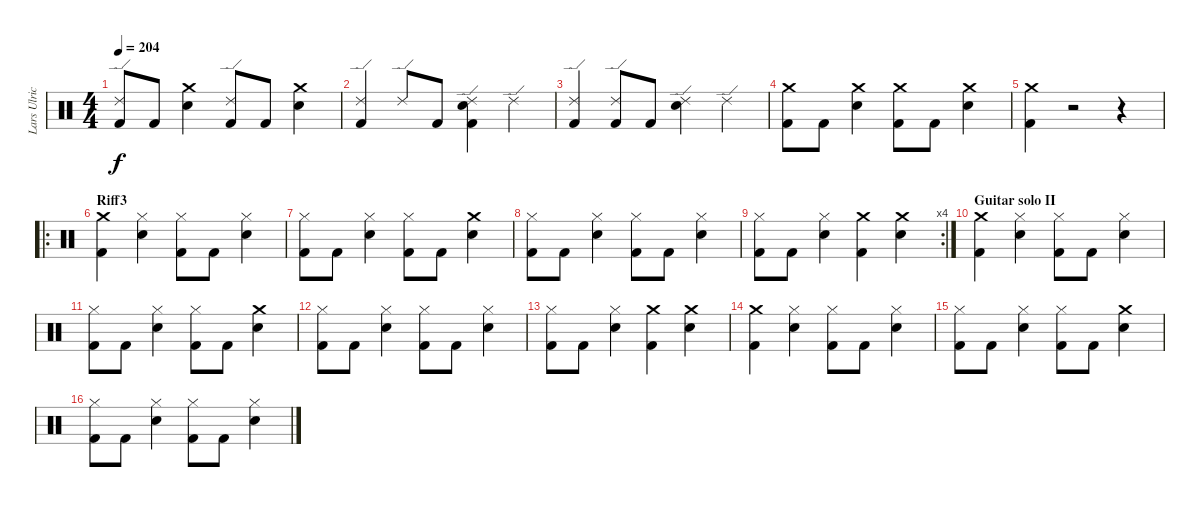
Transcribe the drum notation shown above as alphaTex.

\track ("Lars Ulrich (Drums)" "Lars Ulric") {instrument percussion}
\staff {score}
\articulation defaults
\ts (4 4)
\tempo 204
\clef neutral
\ks c
("Ride (edge) 2" "Kick (hit) 2").8{dy f} "Kick (hit) 2".8 ("Snare (hit) 2" "Crash medium (hit)").4 ("Ride (edge) 2" "Kick (hit) 2").8 "Kick (hit) 2".8 ("Snare (hit) 2" "Crash medium (hit)").4 |
("Ride (edge) 2" "Kick (hit) 2").4 "Ride (edge) 2".8 "Kick (hit) 2".8 ("Ride (edge) 2" "Snare (hit) 2" "Kick (hit) 2").4 "Ride (edge) 2".4 |
("Kick (hit) 2" "Ride (edge) 2").4 ("Ride (edge) 2" "Kick (hit) 2").8 "Kick (hit) 2".8 ("Snare (hit) 2" "Ride (edge) 2").4 "Ride (edge) 2".4 |
("Kick (hit) 2" "Crash medium (hit)").8 "Kick (hit) 2".8 ("Snare (hit) 2" "Crash medium (hit)").4 ("Kick (hit) 2" "Crash medium (hit)").8 "Kick (hit) 2".8 ("Snare (hit) 2" "Crash medium (hit)").4 |
("Kick (hit) 2" "Crash medium (hit)").4 r.2 r.4 |
\ro
\section ("" "Riff3")
("Kick (hit) 2" "Crash medium (hit)").4 ("Hi-Hat (closed)" "Snare (hit) 2").4 ("Hi-Hat (closed)" "Kick (hit) 2").8 "Kick (hit) 2".8 ("Snare (hit) 2" "Hi-Hat (closed)").4 |
("Hi-Hat (closed)" "Kick (hit) 2").8 "Kick (hit) 2".8 ("Snare (hit) 2" "Hi-Hat (closed)").4 ("Hi-Hat (closed)" "Kick (hit) 2").8 "Kick (hit) 2".8 ("Crash medium (hit)" "Snare (hit) 2").4 |
("Hi-Hat (closed)" "Kick (hit) 2").8 "Kick (hit) 2".8 ("Snare (hit) 2" "Hi-Hat (closed)").4 ("Hi-Hat (closed)" "Kick (hit) 2").8 "Kick (hit) 2".8 ("Snare (hit) 2" "Hi-Hat (closed)").4 |
\rc 4
("Hi-Hat (closed)" "Kick (hit) 2").8 "Kick (hit) 2".8 ("Snare (hit) 2" "Hi-Hat (closed)").4 ("Crash medium (hit)" "Kick (hit) 2").4 ("Crash medium (hit)" "Snare (hit) 2").4 |
\section ("" "Guitar solo II")
("Kick (hit) 2" "Crash medium (hit)").4 ("Hi-Hat (closed)" "Snare (hit) 2").4 ("Hi-Hat (closed)" "Kick (hit) 2").8 "Kick (hit) 2".8 ("Snare (hit) 2" "Hi-Hat (closed)").4 |
("Hi-Hat (closed)" "Kick (hit) 2").8 "Kick (hit) 2".8 ("Snare (hit) 2" "Hi-Hat (closed)").4 ("Hi-Hat (closed)" "Kick (hit) 2").8 "Kick (hit) 2".8 ("Crash medium (hit)" "Snare (hit) 2").4 |
("Hi-Hat (closed)" "Kick (hit) 2").8 "Kick (hit) 2".8 ("Snare (hit) 2" "Hi-Hat (closed)").4 ("Hi-Hat (closed)" "Kick (hit) 2").8 "Kick (hit) 2".8 ("Snare (hit) 2" "Hi-Hat (closed)").4 |
("Hi-Hat (closed)" "Kick (hit) 2").8 "Kick (hit) 2".8 ("Snare (hit) 2" "Hi-Hat (closed)").4 ("Crash medium (hit)" "Kick (hit) 2").4 ("Crash medium (hit)" "Snare (hit) 2").4 |
("Kick (hit) 2" "Crash medium (hit)").4 ("Hi-Hat (closed)" "Snare (hit) 2").4 ("Hi-Hat (closed)" "Kick (hit) 2").8 "Kick (hit) 2".8 ("Snare (hit) 2" "Hi-Hat (closed)").4 |
("Hi-Hat (closed)" "Kick (hit) 2").8 "Kick (hit) 2".8 ("Snare (hit) 2" "Hi-Hat (closed)").4 ("Hi-Hat (closed)" "Kick (hit) 2").8 "Kick (hit) 2".8 ("Crash medium (hit)" "Snare (hit) 2").4 |
("Hi-Hat (closed)" "Kick (hit) 2").8 "Kick (hit) 2".8 ("Snare (hit) 2" "Hi-Hat (closed)").4 ("Hi-Hat (closed)" "Kick (hit) 2").8 "Kick (hit) 2".8 ("Snare (hit) 2" "Hi-Hat (closed)").4
